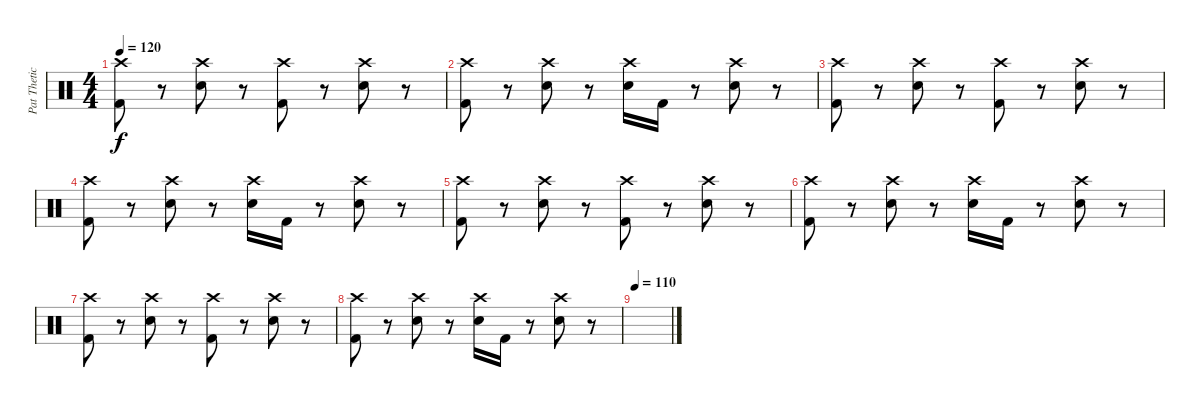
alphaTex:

\track ("Pat Thetic" "Pat Thetic") {instrument percussion}
\staff {score}
\articulation defaults
\ts (4 4)
\tempo 120
\clef neutral
\ks c
("Crash high (hit)" "Kick (hit) 2").8{dy f} r.8 ("Crash high (hit)" "Electric Snare (hit)").8 r.8 ("Crash high (hit)" "Kick (hit) 2").8 r.8 ("Crash high (hit)" "Electric Snare (hit)").8 r.8 |
("Crash high (hit)" "Kick (hit) 2").8 r.8 ("Crash high (hit)" "Electric Snare (hit)").8 r.8 ("Crash high (hit)" "Electric Snare (hit)").16 "Kick (hit) 2".16 r.8 ("Crash high (hit)" "Electric Snare (hit)").8 r.8 |
("Crash high (hit)" "Kick (hit) 2").8 r.8 ("Crash high (hit)" "Electric Snare (hit)").8 r.8 ("Crash high (hit)" "Kick (hit) 2").8 r.8 ("Crash high (hit)" "Electric Snare (hit)").8 r.8 |
("Crash high (hit)" "Kick (hit) 2").8 r.8 ("Crash high (hit)" "Electric Snare (hit)").8 r.8 ("Crash high (hit)" "Electric Snare (hit)").16 "Kick (hit) 2".16 r.8 ("Crash high (hit)" "Electric Snare (hit)").8 r.8 |
("Crash high (hit)" "Kick (hit) 2").8 r.8 ("Crash high (hit)" "Electric Snare (hit)").8 r.8 ("Crash high (hit)" "Kick (hit) 2").8 r.8 ("Crash high (hit)" "Electric Snare (hit)").8 r.8 |
("Crash high (hit)" "Kick (hit) 2").8 r.8 ("Crash high (hit)" "Electric Snare (hit)").8 r.8 ("Crash high (hit)" "Electric Snare (hit)").16 "Kick (hit) 2".16 r.8 ("Crash high (hit)" "Electric Snare (hit)").8 r.8 |
("Crash high (hit)" "Kick (hit) 2").8 r.8 ("Crash high (hit)" "Electric Snare (hit)").8 r.8 ("Crash high (hit)" "Kick (hit) 2").8 r.8 ("Crash high (hit)" "Electric Snare (hit)").8 r.8 |
("Crash high (hit)" "Kick (hit) 2").8 r.8 ("Crash high (hit)" "Electric Snare (hit)").8 r.8 ("Crash high (hit)" "Electric Snare (hit)").16 "Kick (hit) 2".16 r.8 ("Crash high (hit)" "Electric Snare (hit)").8 r.8 |
\tempo 110
